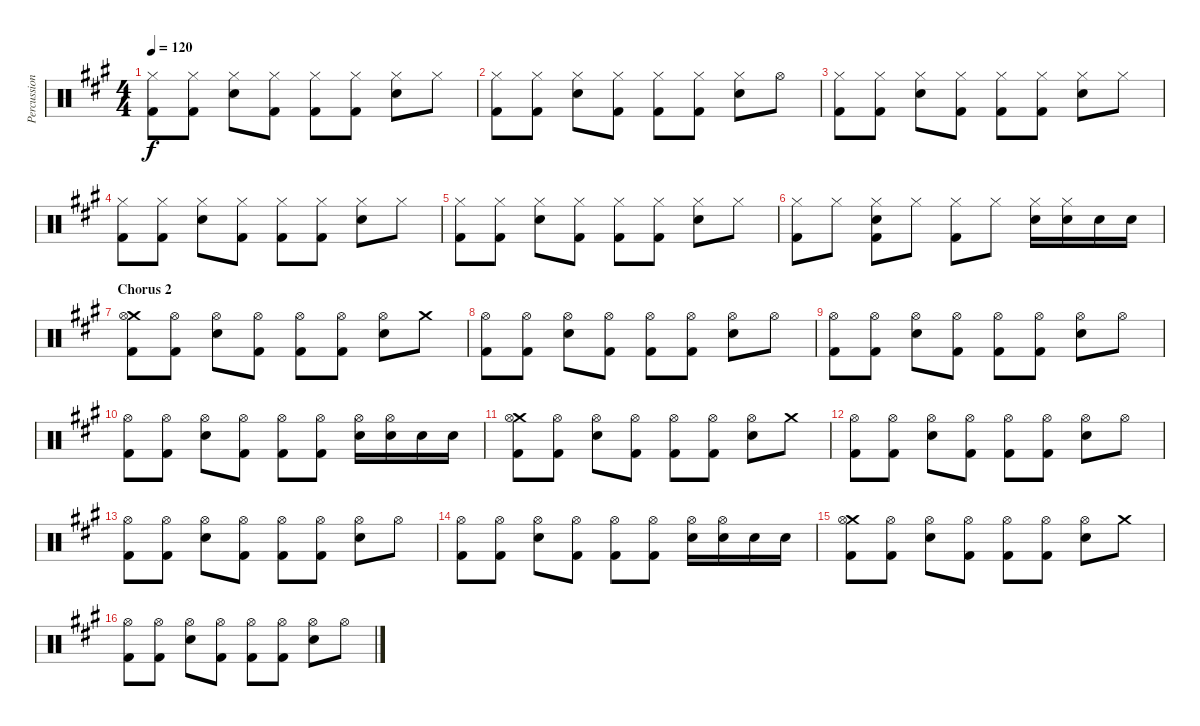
\track ("Percussion" "Percussion") {instrument percussion}
\staff {score}
\articulation defaults
\ts (4 4)
\tempo 120
\clef neutral
\ks a
("Hi-Hat (closed)" "Kick (hit) 2").8{dy f} ("Hi-Hat (closed)" "Kick (hit) 2").8 ("Hi-Hat (closed)" "Snare (hit) 2").8 ("Hi-Hat (closed)" "Kick (hit) 2").8 ("Hi-Hat (closed)" "Kick (hit) 2").8 ("Hi-Hat (closed)" "Kick (hit) 2").8 ("Hi-Hat (closed)" "Snare (hit) 2").8 "Hi-Hat (closed)".8 |
("Hi-Hat (closed)" "Kick (hit) 2").8 ("Hi-Hat (closed)" "Kick (hit) 2").8 ("Hi-Hat (closed)" "Snare (hit) 2").8 ("Hi-Hat (closed)" "Kick (hit) 2").8 ("Hi-Hat (closed)" "Kick (hit) 2").8 ("Hi-Hat (closed)" "Kick (hit) 2").8 ("Hi-Hat (closed)" "Snare (hit) 2").8 "Hi-Hat (open)".8 |
("Hi-Hat (closed)" "Kick (hit) 2").8 ("Hi-Hat (closed)" "Kick (hit) 2").8 ("Hi-Hat (closed)" "Snare (hit) 2").8 ("Hi-Hat (closed)" "Kick (hit) 2").8 ("Hi-Hat (closed)" "Kick (hit) 2").8 ("Hi-Hat (closed)" "Kick (hit) 2").8 ("Hi-Hat (closed)" "Snare (hit) 2").8 "Hi-Hat (closed)".8 |
("Hi-Hat (closed)" "Kick (hit) 2").8 ("Hi-Hat (closed)" "Kick (hit) 2").8 ("Hi-Hat (closed)" "Snare (hit) 2").8 ("Hi-Hat (closed)" "Kick (hit) 2").8 ("Hi-Hat (closed)" "Kick (hit) 2").8 ("Hi-Hat (closed)" "Kick (hit) 2").8 ("Hi-Hat (closed)" "Snare (hit) 2").8 "Hi-Hat (closed)".8 |
("Hi-Hat (closed)" "Kick (hit) 2").8 ("Hi-Hat (closed)" "Kick (hit) 2").8 ("Hi-Hat (closed)" "Snare (hit) 2").8 ("Hi-Hat (closed)" "Kick (hit) 2").8 ("Hi-Hat (closed)" "Kick (hit) 2").8 ("Hi-Hat (closed)" "Kick (hit) 2").8 ("Hi-Hat (closed)" "Snare (hit) 2").8 "Hi-Hat (closed)".8 |
("Hi-Hat (closed)" "Kick (hit) 2").8 "Hi-Hat (closed)".8 ("Hi-Hat (closed)" "Snare (hit) 2" "Kick (hit) 2").8 "Hi-Hat (closed)".8 ("Hi-Hat (closed)" "Kick (hit) 2").8 "Hi-Hat (closed)".8 ("Hi-Hat (closed)" "Snare (hit) 2").16 ("Hi-Hat (closed)" "Snare (hit) 2").16 "Snare (hit) 2".16 "Snare (hit) 2".16 |
\section ("" "Chorus 2")
("Crash medium (hit)" "Hi-Hat (open)" "Kick (hit) 2").8 ("Hi-Hat (open)" "Kick (hit) 2").8 ("Hi-Hat (open)" "Snare (hit) 2").8 ("Hi-Hat (open)" "Kick (hit) 2").8 ("Hi-Hat (open)" "Kick (hit) 2").8 ("Hi-Hat (open)" "Kick (hit) 2").8 ("Hi-Hat (open)" "Snare (hit) 2").8 "Crash medium (hit)".8 |
("Hi-Hat (open)" "Kick (hit) 2").8 ("Hi-Hat (open)" "Kick (hit) 2").8 ("Hi-Hat (open)" "Snare (hit) 2").8 ("Hi-Hat (open)" "Kick (hit) 2").8 ("Hi-Hat (open)" "Kick (hit) 2").8 ("Hi-Hat (open)" "Kick (hit) 2").8 ("Hi-Hat (open)" "Snare (hit) 2").8 "Hi-Hat (open)".8 |
("Hi-Hat (open)" "Kick (hit) 2").8 ("Hi-Hat (open)" "Kick (hit) 2").8 ("Hi-Hat (open)" "Snare (hit) 2").8 ("Hi-Hat (open)" "Kick (hit) 2").8 ("Hi-Hat (open)" "Kick (hit) 2").8 ("Hi-Hat (open)" "Kick (hit) 2").8 ("Hi-Hat (open)" "Snare (hit) 2").8 "Hi-Hat (open)".8 |
("Hi-Hat (open)" "Kick (hit) 2").8 ("Hi-Hat (open)" "Kick (hit) 2").8 ("Hi-Hat (open)" "Snare (hit) 2").8 ("Hi-Hat (open)" "Kick (hit) 2").8 ("Hi-Hat (open)" "Kick (hit) 2").8 ("Hi-Hat (open)" "Kick (hit) 2").8 ("Hi-Hat (open)" "Snare (hit) 2").16 ("Hi-Hat (open)" "Snare (hit) 2").16 "Snare (hit) 2".16 "Snare (hit) 2".16 |
("Crash medium (hit)" "Hi-Hat (open)" "Kick (hit) 2").8 ("Hi-Hat (open)" "Kick (hit) 2").8 ("Hi-Hat (open)" "Snare (hit) 2").8 ("Hi-Hat (open)" "Kick (hit) 2").8 ("Hi-Hat (open)" "Kick (hit) 2").8 ("Hi-Hat (open)" "Kick (hit) 2").8 ("Hi-Hat (open)" "Snare (hit) 2").8 "Crash medium (hit)".8 |
("Hi-Hat (open)" "Kick (hit) 2").8 ("Hi-Hat (open)" "Kick (hit) 2").8 ("Hi-Hat (open)" "Snare (hit) 2").8 ("Hi-Hat (open)" "Kick (hit) 2").8 ("Hi-Hat (open)" "Kick (hit) 2").8 ("Hi-Hat (open)" "Kick (hit) 2").8 ("Hi-Hat (open)" "Snare (hit) 2").8 "Hi-Hat (open)".8 |
("Hi-Hat (open)" "Kick (hit) 2").8 ("Hi-Hat (open)" "Kick (hit) 2").8 ("Hi-Hat (open)" "Snare (hit) 2").8 ("Hi-Hat (open)" "Kick (hit) 2").8 ("Hi-Hat (open)" "Kick (hit) 2").8 ("Hi-Hat (open)" "Kick (hit) 2").8 ("Hi-Hat (open)" "Snare (hit) 2").8 "Hi-Hat (open)".8 |
("Hi-Hat (open)" "Kick (hit) 2").8 ("Hi-Hat (open)" "Kick (hit) 2").8 ("Hi-Hat (open)" "Snare (hit) 2").8 ("Hi-Hat (open)" "Kick (hit) 2").8 ("Hi-Hat (open)" "Kick (hit) 2").8 ("Hi-Hat (open)" "Kick (hit) 2").8 ("Hi-Hat (open)" "Snare (hit) 2").16 ("Hi-Hat (open)" "Snare (hit) 2").16 "Snare (hit) 2".16 "Snare (hit) 2".16 |
("Crash medium (hit)" "Hi-Hat (open)" "Kick (hit) 2").8 ("Hi-Hat (open)" "Kick (hit) 2").8 ("Hi-Hat (open)" "Snare (hit) 2").8 ("Hi-Hat (open)" "Kick (hit) 2").8 ("Hi-Hat (open)" "Kick (hit) 2").8 ("Hi-Hat (open)" "Kick (hit) 2").8 ("Hi-Hat (open)" "Snare (hit) 2").8 "Crash medium (hit)".8 |
("Hi-Hat (open)" "Kick (hit) 2").8 ("Hi-Hat (open)" "Kick (hit) 2").8 ("Hi-Hat (open)" "Snare (hit) 2").8 ("Hi-Hat (open)" "Kick (hit) 2").8 ("Hi-Hat (open)" "Kick (hit) 2").8 ("Hi-Hat (open)" "Kick (hit) 2").8 ("Hi-Hat (open)" "Snare (hit) 2").8 "Hi-Hat (open)".8
